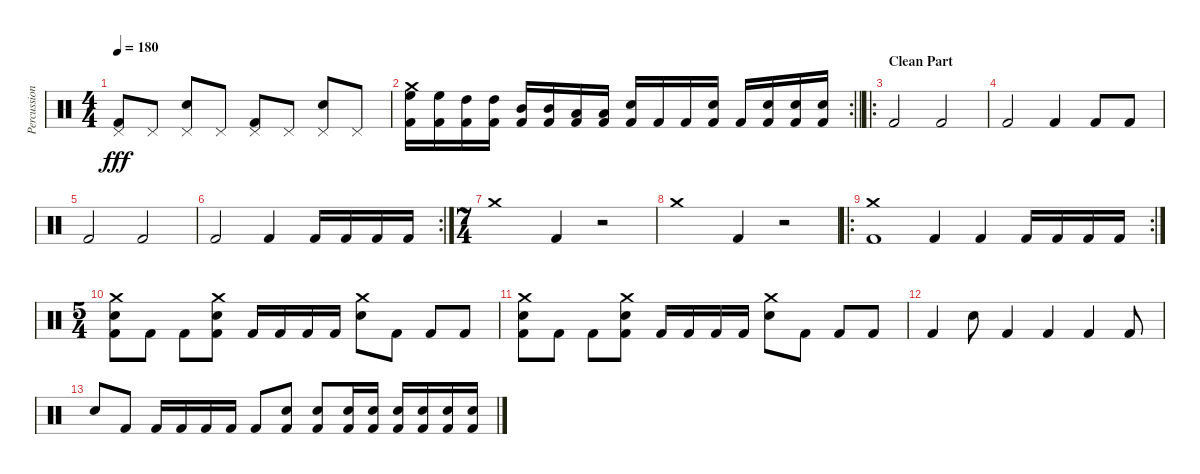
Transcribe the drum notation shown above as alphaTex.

\track ("Percussion" "Percussion") {instrument percussion}
\staff {score}
\articulation defaults
\ts (4 4)
\tempo 180
\clef neutral
\ks c
("Pedal Hi-Hat (hit)" "Kick (hit) 2").8{dy fff} "Pedal Hi-Hat (hit)".8 ("Pedal Hi-Hat (hit)" "Electric Snare (hit)").8 "Pedal Hi-Hat (hit)".8 ("Pedal Hi-Hat (hit)" "Kick (hit) 2").8 "Pedal Hi-Hat (hit)".8 ("Pedal Hi-Hat (hit)" "Electric Snare (hit)").8 "Pedal Hi-Hat (hit)".8 |
\rc 2
\barLineRight lightlight
("Crash medium (hit)" "High Floor Tom (hit)" "Kick (hit) 2").16 ("High Floor Tom (hit)" "Kick (hit) 2").16 ("High Tom (hit)" "Kick (hit) 2").16 ("High Tom (hit)" "Kick (hit) 2").16 ("Mid Tom (hit)" "Kick (hit) 2").16 ("Mid Tom (hit)" "Kick (hit) 2").16 ("Low Tom (hit)" "Kick (hit) 2").16 ("Low Tom (hit)" "Kick (hit) 2").16 ("Electric Snare (hit)" "Kick (hit) 2").16 "Kick (hit) 2".16 "Kick (hit) 2".16 ("Electric Snare (hit)" "Kick (hit) 2").16 "Kick (hit) 2".16 ("Electric Snare (hit)" "Kick (hit) 2").16 ("Electric Snare (hit)" "Kick (hit) 2").16 ("Electric Snare (hit)" "Kick (hit) 2").16 |
\ro
\section ("" "Clean Part")
"Kick (hit) 2".2 "Kick (hit) 2".2 |
"Kick (hit) 2".2 "Kick (hit) 2".4 "Kick (hit) 2".8 "Kick (hit) 2".8 |
"Kick (hit) 2".2 "Kick (hit) 2".2 |
\rc 2 "Kick (hit) 2".2 "Kick (hit) 2".4 "Kick (hit) 2".16 "Kick (hit) 2".16 "Kick (hit) 2".16 "Kick (hit) 2".16
|
\ts (7 4)
"Crash medium (hit)".1 "Kick (hit) 2".4 r.2 |
"Crash medium (hit)".1 "Kick (hit) 2".4 r.2 |
\ro
\rc 2
("Crash medium (hit)" "Kick (hit) 2").1 "Kick (hit) 2".4 "Kick (hit) 2".4 "Kick (hit) 2".16 "Kick (hit) 2".16 "Kick (hit) 2".16 "Kick (hit) 2".16 |
\ts (5 4)
("Crash medium (hit)" "Electric Snare (hit)" "Kick (hit) 2").8 "Kick (hit) 2".8 "Kick (hit) 2".8 ("Crash medium (hit)" "Electric Snare (hit)" "Kick (hit) 2").8 "Kick (hit) 2".16 "Kick (hit) 2".16 "Kick (hit) 2".16 "Kick (hit) 2".16 ("Crash medium (hit)" "Electric Snare (hit)").8 "Kick (hit) 2".8 "Kick (hit) 2".8 "Kick (hit) 2".8 |
("Crash medium (hit)" "Electric Snare (hit)" "Kick (hit) 2").8 "Kick (hit) 2".8 "Kick (hit) 2".8 ("Crash medium (hit)" "Electric Snare (hit)" "Kick (hit) 2").8 "Kick (hit) 2".16 "Kick (hit) 2".16 "Kick (hit) 2".16 "Kick (hit) 2".16 ("Crash medium (hit)" "Electric Snare (hit)").8 "Kick (hit) 2".8 "Kick (hit) 2".8 "Kick (hit) 2".8 |
"Kick (hit) 2".4 "Electric Snare (hit)".8 "Kick (hit) 2".4 "Kick (hit) 2".4 "Kick (hit) 2".4 "Kick (hit) 2".8 |
"Electric Snare (hit)".8 "Kick (hit) 2".8 "Kick (hit) 2".16 "Kick (hit) 2".16 "Kick (hit) 2".16 "Kick (hit) 2".16 "Kick (hit) 2".8 ("Electric Snare (hit)" "Kick (hit) 2").8 ("Electric Snare (hit)" "Kick (hit) 2").8 ("Electric Snare (hit)" "Kick (hit) 2").16 ("Electric Snare (hit)" "Kick (hit) 2").16 ("Electric Snare (hit)" "Kick (hit) 2").16 ("Electric Snare (hit)" "Kick (hit) 2").16 ("Electric Snare (hit)" "Kick (hit) 2").16 ("Electric Snare (hit)" "Kick (hit) 2").16
